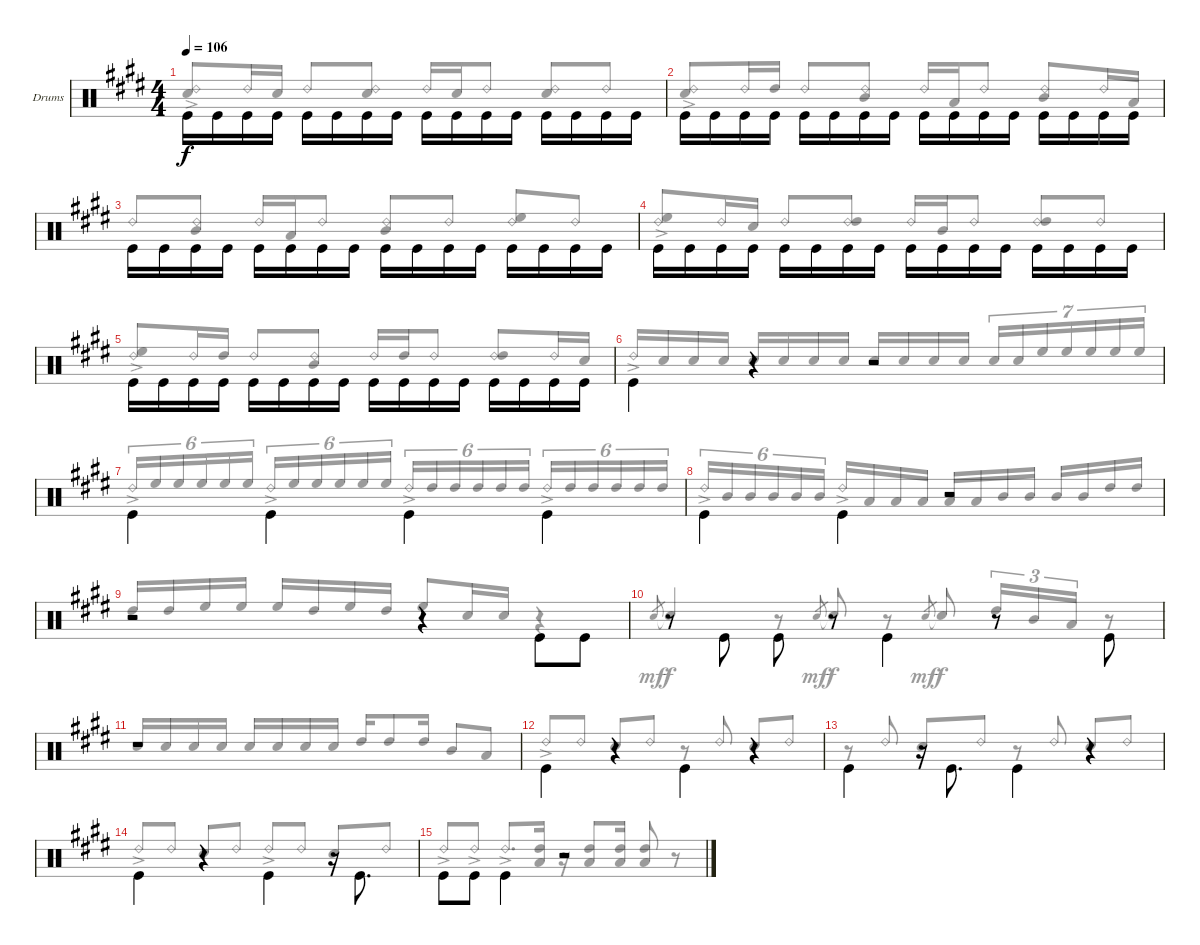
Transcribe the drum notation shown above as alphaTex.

\bracketExtendMode groupsimilarinstruments
\firstSystemTrackNameOrientation horizontal
\otherSystemsTrackNameOrientation horizontal
\track ("Drums" "Drums") {instrument percussion}
\staff {score}
\articulation defaults
\voice
\ts (4 4)
\tempo 106
\clef neutral
\scale
1.02648
\ks e "Kick (hit)".16{dy f beam invert} "Kick (hit)".16 "Kick (hit)".16 "Kick (hit)".16 "Kick (hit)".16{beam invert} "Kick (hit)".16 "Kick (hit)".16 "Kick (hit)".16 "Kick (hit)".16{beam invert} "Kick (hit)".16 "Kick (hit)".16 "Kick (hit)".16 "Kick (hit)".16{beam invert} "Kick (hit)".16 "Kick (hit)".16 "Kick (hit)".16
|
\scale
0.973518 "Kick (hit)".16{beam invert} "Kick (hit)".16 "Kick (hit)".16 "Kick (hit)".16 "Kick (hit)".16{beam invert} "Kick (hit)".16 "Kick (hit)".16 "Kick (hit)".16 "Kick (hit)".16{beam invert} "Kick (hit)".16 "Kick (hit)".16 "Kick (hit)".16 "Kick (hit)".16{beam invert} "Kick (hit)".16 "Kick (hit)".16 "Kick (hit)".16 |
\scale
1.02648 "Kick (hit)".16{beam invert} "Kick (hit)".16 "Kick (hit)".16 "Kick (hit)".16 "Kick (hit)".16{beam invert} "Kick (hit)".16 "Kick (hit)".16 "Kick (hit)".16 "Kick (hit)".16{beam invert} "Kick (hit)".16 "Kick (hit)".16 "Kick (hit)".16 "Kick (hit)".16{beam invert} "Kick (hit)".16 "Kick (hit)".16 "Kick (hit)".16 |
\scale
0.973518 "Kick (hit)".16{beam invert} "Kick (hit)".16 "Kick (hit)".16 "Kick (hit)".16 "Kick (hit)".16{beam invert} "Kick (hit)".16 "Kick (hit)".16 "Kick (hit)".16 "Kick (hit)".16{beam invert} "Kick (hit)".16 "Kick (hit)".16 "Kick (hit)".16 "Kick (hit)".16{beam invert} "Kick (hit)".16 "Kick (hit)".16 "Kick (hit)".16 |
\scale
1.02648 "Kick (hit)".16{beam invert} "Kick (hit)".16 "Kick (hit)".16 "Kick (hit)".16 "Kick (hit)".16{beam invert} "Kick (hit)".16 "Kick (hit)".16 "Kick (hit)".16 "Kick (hit)".16{beam invert} "Kick (hit)".16 "Kick (hit)".16 "Kick (hit)".16 "Kick (hit)".16{beam invert} "Kick (hit)".16 "Kick (hit)".16 "Kick (hit)".16 |
\scale
0.973518 "Kick (hit)".4{beam invert} r.4 r.2 |
\scale
1.02648 "Kick (hit)".4{beam invert} "Kick (hit)".4{beam invert} "Kick (hit)".4{beam invert} "Kick (hit)".4{beam invert} |
\scale
0.973518 "Kick (hit)".4{beam invert} "Kick (hit)".4{beam invert} r.2{beam invert} |
\scale
1.02648 r.2 r.4 "Kick (hit)".8{beam invert} "Kick (hit)".8 |
\scale
0.973518 r.8 "Kick (hit)".8{beam invert} "Kick (hit)".8{beam invert} r.8 "Kick (hit)".4{beam invert} r.8 "Kick (hit)".8{beam invert} |
\scale
1.02648 r.1 |
\scale
0.973518 "Kick (hit)".4{beam invert} r.4 "Kick (hit)".4{beam invert} r.4 |
\scale
1.02648 "Kick (hit)".4{beam invert} r.16 "Kick (hit)".8{d beam invert} "Kick (hit)".4{beam invert} r.4 |
\scale
0.973518 "Kick (hit)".4{beam invert} r.4 "Kick (hit)".4{beam invert} r.16 "Kick (hit)".8{d beam invert} |
"Kick (hit)".8{beam invert} "Kick (hit)".8 "Kick (hit)".4{beam invert} r.2
\voice
\clef neutral
\ottava regular
\simile none
\scale
1.02648
\ks e
("Snare (hit) 2" "Ride (bell) 2"{ac}).8{dy f beam invert} "Ride (bell) 2".16 "Snare (hit) 2".16 "Ride (bell) 2".8{beam invert} ("Ride (bell) 2" "Snare (hit) 2").8 "Ride (bell) 2".16{beam invert} "Snare (hit) 2".16 "Ride (bell) 2".8 ("Ride (bell) 2" "Snare (hit) 2").8{beam invert} "Ride (bell) 2".8 |
\scale
0.973518 ("Snare (hit) 2" "Ride (bell) 2"{ac}).8{beam invert} "Ride (bell) 2".16 "High Tom (hit)".16 "Ride (bell) 2".8{beam invert} ("Ride (bell) 2" "Mid Tom (hit)").8 "Ride (bell) 2".16{beam invert} "Low Tom (hit)".16 "Ride (bell) 2".8 ("Ride (bell) 2" "Mid Tom (hit)").8{beam invert} "Ride (bell) 2".16 "Low Tom (hit)".16 |
\scale
1.02648 "Ride (bell) 2".8{beam invert} ("Ride (bell) 2" "Mid Tom (hit)").8 "Ride (bell) 2".16{beam invert} "Low Tom (hit)".16 "Ride (bell) 2".8 ("Mid Tom (hit)" "Ride (bell) 2").8{beam invert} "Ride (bell) 2".8 ("Ride (bell) 2" "High Floor Tom (hit)").8{beam invert} "Ride (bell) 2".8 |
\scale
0.973518 ("Ride (bell) 2"{ac} "High Floor Tom (hit)").8{beam invert} "Ride (bell) 2".16 "Snare (hit) 2".16 "Ride (bell) 2".8{beam invert} ("Ride (bell) 2" "High Tom (hit)").8 "Ride (bell) 2".16{beam invert} "Mid Tom (hit)".16 "Ride (bell) 2".8 ("Ride (bell) 2" "High Tom (hit)").8{beam invert} "Ride (bell) 2".8 |
\scale
1.02648 ("Ride (bell) 2"{ac} "High Floor Tom (hit)").8{beam invert} "Ride (bell) 2".16 "High Tom (hit)".16 "Ride (bell) 2".8{beam invert} ("Ride (bell) 2" "Mid Tom (hit)").8 "Ride (bell) 2".16{beam invert} "High Tom (hit)".16 "Ride (bell) 2".8 ("Ride (bell) 2" "High Tom (hit)").8{beam invert} "Ride (bell) 2".16 "Snare (hit) 2".16 |
\scale
0.973518 "Ride (bell) 2"{ac}.16{beam invert} "Snare (hit) 2".16 "Snare (hit) 2".16 "Snare (hit) 2".16 "Snare (hit) 2".16{beam invert} "Snare (hit) 2".16 "Snare (hit) 2".16 "Snare (hit) 2".16 "Snare (hit) 2".16{beam invert} "Snare (hit) 2".16 "Snare (hit) 2".16 "Snare (hit) 2".16 "Snare (hit) 2".16{tu (7 4) beam invert} "Snare (hit) 2".16{tu (7 4)} "High Floor Tom (hit)".16{tu (7 4)} "High Floor Tom (hit)".16{tu (7 4)} "High Floor Tom (hit)".16{tu (7 4)} "High Floor Tom (hit)".16{tu (7 4)} "High Floor Tom (hit)".16{tu (7 4)} |
\scale
1.02648 "Ride (bell) 2"{ac}.16{tu (6 4) beam invert} "High Floor Tom (hit)".16{tu (6 4)} "High Floor Tom (hit)".16{tu (6 4)} "High Floor Tom (hit)".16{tu (6 4)} "High Floor Tom (hit)".16{tu (6 4)} "High Floor Tom (hit)".16{tu (6 4)} "Ride (bell) 2"{ac}.16{tu (6 4) beam invert} "High Floor Tom (hit)".16{tu (6 4)} "High Floor Tom (hit)".16{tu (6 4)} "High Floor Tom (hit)".16{tu (6 4)} "High Floor Tom (hit)".16{tu (6 4)} "High Floor Tom (hit)".16{tu (6 4)} "Ride (bell) 2"{ac}.16{tu (6 4) beam invert} "High Tom (hit)".16{tu (6 4)} "High Tom (hit)".16{tu (6 4)} "High Tom (hit)".16{tu (6 4)} "High Tom (hit)".16{tu (6 4)} "High Tom (hit)".16{tu (6 4)} "Ride (bell) 2"{ac}.16{tu (6 4) beam invert} "High Tom (hit)".16{tu (6 4)} "High Tom (hit)".16{tu (6 4)} "High Tom (hit)".16{tu (6 4)} "High Tom (hit)".16{tu (6 4)} "High Tom (hit)".16{tu (6 4)} |
\scale
0.973518 "Ride (bell) 2"{ac}.16{tu (6 4) beam invert} "Mid Tom (hit)".16{tu (6 4)} "Mid Tom (hit)".16{tu (6 4)} "Mid Tom (hit)".16{tu (6 4)} "Mid Tom (hit)".16{tu (6 4)} "Mid Tom (hit)".16{tu (6 4)} "Ride (bell) 2"{ac}.16{beam invert} "Low Tom (hit)".16 "Low Tom (hit)".16 "Low Tom (hit)".16 "Low Tom (hit)".16{beam invert} "Low Tom (hit)".16 "Mid Tom (hit)".16 "Mid Tom (hit)".16 "Mid Tom (hit)".16{beam invert} "Mid Tom (hit)".16 "High Tom (hit)".16 "High Tom (hit)".16 |
\scale
1.02648 "High Tom (hit)".16{beam invert} "High Tom (hit)".16 "High Floor Tom (hit)".16 "High Floor Tom (hit)".16 "High Floor Tom (hit)".16{beam invert} "High Tom (hit)".16 "High Floor Tom (hit)".16 "High Tom (hit)".16 "High Floor Tom (hit)".8{beam invert} "Snare (hit) 2".16 "Snare (hit) 2".16 r.4{beam invert} |
\scale
0.973518 "Snare (hit) 2".8{gr dy mf beam invert} "Snare (hit) 2"{t}.4{dy f beam invert} r.8 "Snare (hit) 2".8{gr dy mf beam invert} "Snare (hit) 2"{t}.8{dy f beam invert} r.8{beam invert} "Snare (hit) 2".8{gr dy mf beam invert} "Snare (hit) 2"{t}.8{dy f beam invert} "High Tom (hit)".16{tu (3 2) beam invert} "Mid Tom (hit)".16{tu (3 2)} "Low Tom (hit)".16{tu (3 2)} r.8{beam invert} |
\scale
1.02648 "Snare (hit) 2".16{beam invert} "Snare (hit) 2".16 "Snare (hit) 2".16 "Snare (hit) 2".16 "Snare (hit) 2".16{beam invert} "Snare (hit) 2".16 "Snare (hit) 2".16 "Snare (hit) 2".16 "High Tom (hit)".16{beam invert} "High Tom (hit)".8 "High Tom (hit)".16 "Mid Tom (hit)".8{beam invert} "Low Tom (hit)".8 |
\scale
0.973518 "Ride (bell) 2"{ac}.8{beam invert} "Ride (bell) 2".8 "Snare (hit) 2".8{beam invert} "Ride (bell) 2".8 r.8{beam invert} "Ride (bell) 2".8{beam invert} "Snare (hit) 2".8{beam invert} "Ride (bell) 2".8 |
\scale
1.02648 r.8{beam invert} "Ride (bell) 2".8{beam invert} "Snare (hit) 2".8{beam invert} "Ride (bell) 2".8 r.8{beam invert} "Ride (bell) 2".8{beam invert} "Snare (hit) 2".8{beam invert} "Ride (bell) 2".8 |
\scale
0.973518 "Ride (bell) 2"{ac}.8{beam invert} "Ride (bell) 2".8 "Snare (hit) 2".8{beam invert} "Ride (bell) 2".8 "Ride (bell) 2"{ac}.8{beam invert} "Ride (bell) 2".8 "Snare (hit) 2".8{beam invert} "Ride (bell) 2".8 |
"Ride (bell) 2"{ac}.8{beam invert} "Ride (bell) 2"{ac}.8 "Ride (bell) 2"{ac}.8{d beam invert} ("High Tom (hit)" "Low Tom (hit)").16 r.16 ("High Tom (hit)" "Low Tom (hit)").8{beam invert} ("High Tom (hit)" "Low Tom (hit)").16 ("High Tom (hit)" "Low Tom (hit)").8{beam invert} r.8
